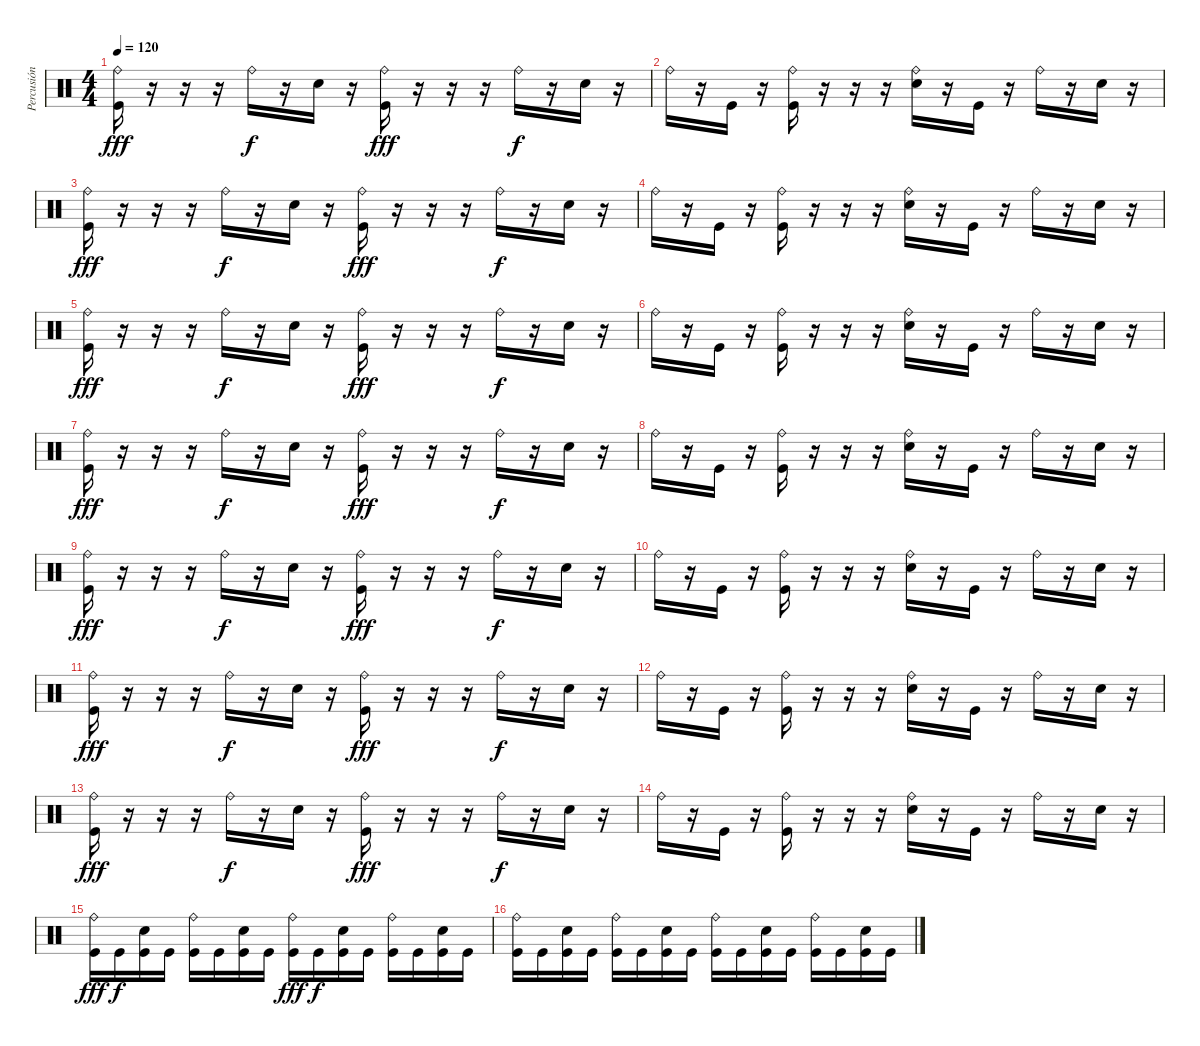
\track ("Percusión" "Percusión") {instrument percussion}
\staff {score}
\articulation defaults
\ts (4 4)
\tempo 120
\clef neutral
\ks c
("Ride (bell)" "Kick (hit)").16{dy fff} r.16 r.16 r.16 "Ride (bell)".16{dy f} r.16 "Snare (hit) 2".16 r.16 ("Ride (bell)" "Kick (hit)").16{dy fff} r.16 r.16 r.16 "Ride (bell)".16{dy f} r.16 "Snare (hit) 2".16 r.16 |
"Ride (bell)".16 r.16 "Kick (hit)".16 r.16 ("Ride (bell)" "Kick (hit)").16 r.16 r.16 r.16 ("Ride (bell)" "Snare (hit) 2").16 r.16 "Kick (hit)".16 r.16 "Ride (bell)".16 r.16 "Snare (hit) 2".16 r.16 |
("Ride (bell)" "Kick (hit)").16{dy fff} r.16 r.16 r.16 "Ride (bell)".16{dy f} r.16 "Snare (hit) 2".16 r.16 ("Ride (bell)" "Kick (hit)").16{dy fff} r.16 r.16 r.16 "Ride (bell)".16{dy f} r.16 "Snare (hit) 2".16 r.16 |
"Ride (bell)".16 r.16 "Kick (hit)".16 r.16 ("Ride (bell)" "Kick (hit)").16 r.16 r.16 r.16 ("Ride (bell)" "Snare (hit) 2").16 r.16 "Kick (hit)".16 r.16 "Ride (bell)".16 r.16 "Snare (hit) 2".16 r.16 |
("Ride (bell)" "Kick (hit)").16{dy fff} r.16 r.16 r.16 "Ride (bell)".16{dy f} r.16 "Snare (hit) 2".16 r.16 ("Ride (bell)" "Kick (hit)").16{dy fff} r.16 r.16 r.16 "Ride (bell)".16{dy f} r.16 "Snare (hit) 2".16 r.16 |
"Ride (bell)".16 r.16 "Kick (hit)".16 r.16 ("Ride (bell)" "Kick (hit)").16 r.16 r.16 r.16 ("Ride (bell)" "Snare (hit) 2").16 r.16 "Kick (hit)".16 r.16 "Ride (bell)".16 r.16 "Snare (hit) 2".16 r.16 |
("Ride (bell)" "Kick (hit)").16{dy fff} r.16 r.16 r.16 "Ride (bell)".16{dy f} r.16 "Snare (hit) 2".16 r.16 ("Ride (bell)" "Kick (hit)").16{dy fff} r.16 r.16 r.16 "Ride (bell)".16{dy f} r.16 "Snare (hit) 2".16 r.16 |
"Ride (bell)".16 r.16 "Kick (hit)".16 r.16 ("Ride (bell)" "Kick (hit)").16 r.16 r.16 r.16 ("Ride (bell)" "Snare (hit) 2").16 r.16 "Kick (hit)".16 r.16 "Ride (bell)".16 r.16 "Snare (hit) 2".16 r.16 |
("Ride (bell)" "Kick (hit)").16{dy fff} r.16 r.16 r.16 "Ride (bell)".16{dy f} r.16 "Snare (hit) 2".16 r.16 ("Ride (bell)" "Kick (hit)").16{dy fff} r.16 r.16 r.16 "Ride (bell)".16{dy f} r.16 "Snare (hit) 2".16 r.16 |
"Ride (bell)".16 r.16 "Kick (hit)".16 r.16 ("Ride (bell)" "Kick (hit)").16 r.16 r.16 r.16 ("Ride (bell)" "Snare (hit) 2").16 r.16 "Kick (hit)".16 r.16 "Ride (bell)".16 r.16 "Snare (hit) 2".16 r.16 |
("Ride (bell)" "Kick (hit)").16{dy fff} r.16 r.16 r.16 "Ride (bell)".16{dy f} r.16 "Snare (hit) 2".16 r.16 ("Ride (bell)" "Kick (hit)").16{dy fff} r.16 r.16 r.16 "Ride (bell)".16{dy f} r.16 "Snare (hit) 2".16 r.16 |
"Ride (bell)".16 r.16 "Kick (hit)".16 r.16 ("Ride (bell)" "Kick (hit)").16 r.16 r.16 r.16 ("Ride (bell)" "Snare (hit) 2").16 r.16 "Kick (hit)".16 r.16 "Ride (bell)".16 r.16 "Snare (hit) 2".16 r.16 |
("Ride (bell)" "Kick (hit)").16{dy fff} r.16 r.16 r.16 "Ride (bell)".16{dy f} r.16 "Snare (hit) 2".16 r.16 ("Ride (bell)" "Kick (hit)").16{dy fff} r.16 r.16 r.16 "Ride (bell)".16{dy f} r.16 "Snare (hit) 2".16 r.16 |
"Ride (bell)".16 r.16 "Kick (hit)".16 r.16 ("Ride (bell)" "Kick (hit)").16 r.16 r.16 r.16 ("Ride (bell)" "Snare (hit) 2").16 r.16 "Kick (hit)".16 r.16 "Ride (bell)".16 r.16 "Snare (hit) 2".16 r.16 |
("Ride (bell)" "Kick (hit)").16{dy fff} "Kick (hit)".16{dy f} ("Snare (hit) 2" "Kick (hit)").16 "Kick (hit)".16 ("Ride (bell)" "Kick (hit)").16 "Kick (hit)".16 ("Snare (hit) 2" "Kick (hit)").16 "Kick (hit)".16 ("Ride (bell)" "Kick (hit)").16{dy fff} "Kick (hit)".16{dy f} ("Snare (hit) 2" "Kick (hit)").16 "Kick (hit)".16 ("Ride (bell)" "Kick (hit)").16 "Kick (hit)".16 ("Snare (hit) 2" "Kick (hit)").16 "Kick (hit)".16 |
("Ride (bell)" "Kick (hit)").16 "Kick (hit)".16 ("Snare (hit) 2" "Kick (hit)").16 "Kick (hit)".16 ("Ride (bell)" "Kick (hit)").16 "Kick (hit)".16 ("Snare (hit) 2" "Kick (hit)").16 "Kick (hit)".16 ("Ride (bell)" "Kick (hit)").16 "Kick (hit)".16 ("Snare (hit) 2" "Kick (hit)").16 "Kick (hit)".16 ("Ride (bell)" "Kick (hit)").16 "Kick (hit)".16 ("Snare (hit) 2" "Kick (hit)").16 "Kick (hit)".16
